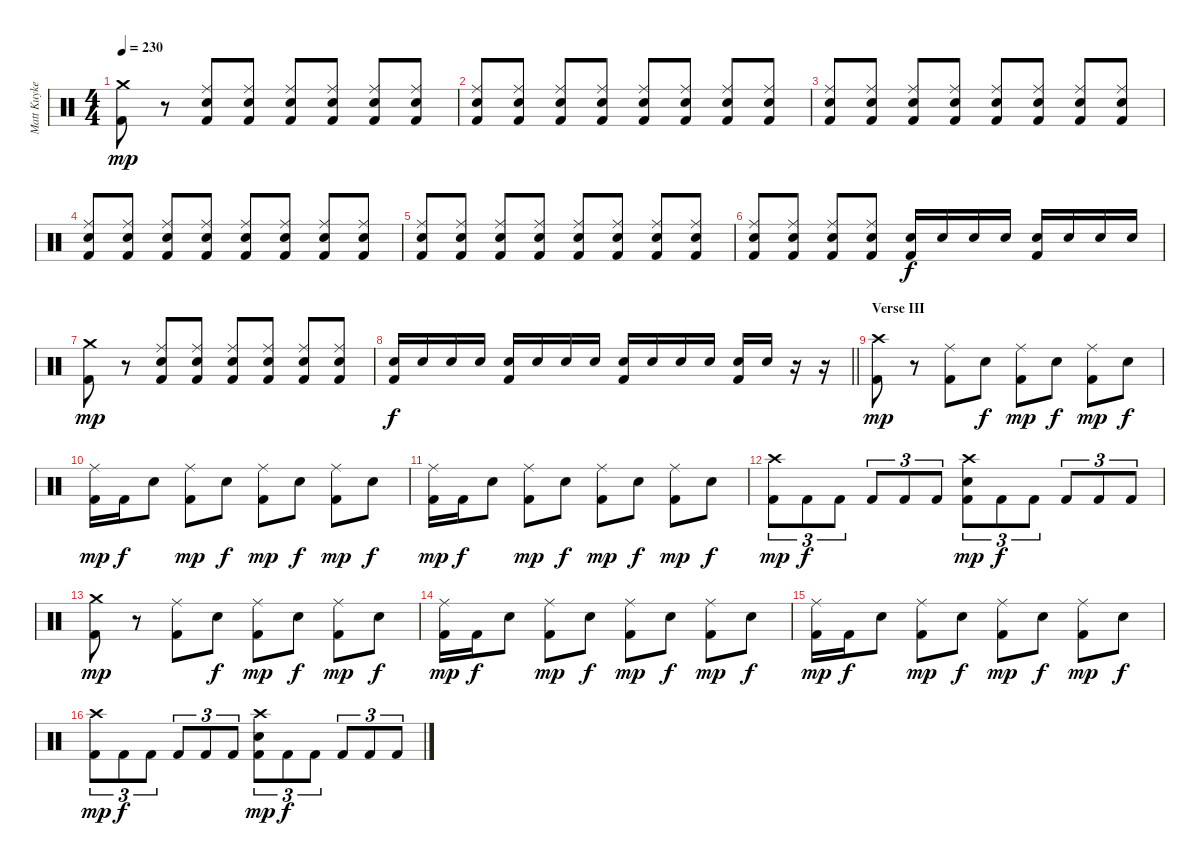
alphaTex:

\track ("Matt Kuykendall" "Matt Kuyke") {instrument percussion}
\staff {score}
\articulation defaults
\ts (4 4)
\tempo 230
\clef neutral
\ks c
("Crash medium (hit)" "Kick (hit) 2").8{dy mp} r.8 ("Ride (middle)" "Electric Snare (hit)" "Kick (hit) 2").8 ("Ride (middle)" "Electric Snare (hit)" "Kick (hit) 2").8 ("Ride (middle)" "Electric Snare (hit)" "Kick (hit) 2").8 ("Ride (middle)" "Electric Snare (hit)" "Kick (hit) 2").8 ("Ride (middle)" "Electric Snare (hit)" "Kick (hit) 2").8 ("Ride (middle)" "Electric Snare (hit)" "Kick (hit) 2").8 |
("Ride (middle)" "Electric Snare (hit)" "Kick (hit) 2").8 ("Ride (middle)" "Electric Snare (hit)" "Kick (hit) 2").8 ("Ride (middle)" "Electric Snare (hit)" "Kick (hit) 2").8 ("Ride (middle)" "Electric Snare (hit)" "Kick (hit) 2").8 ("Ride (middle)" "Electric Snare (hit)" "Kick (hit) 2").8 ("Ride (middle)" "Electric Snare (hit)" "Kick (hit) 2").8 ("Ride (middle)" "Electric Snare (hit)" "Kick (hit) 2").8 ("Ride (middle)" "Electric Snare (hit)" "Kick (hit) 2").8 |
("Ride (middle)" "Electric Snare (hit)" "Kick (hit) 2").8 ("Ride (middle)" "Electric Snare (hit)" "Kick (hit) 2").8 ("Ride (middle)" "Electric Snare (hit)" "Kick (hit) 2").8 ("Ride (middle)" "Electric Snare (hit)" "Kick (hit) 2").8 ("Ride (middle)" "Electric Snare (hit)" "Kick (hit) 2").8 ("Ride (middle)" "Electric Snare (hit)" "Kick (hit) 2").8 ("Ride (middle)" "Electric Snare (hit)" "Kick (hit) 2").8 ("Ride (middle)" "Electric Snare (hit)" "Kick (hit) 2").8 |
("Ride (middle)" "Electric Snare (hit)" "Kick (hit) 2").8 ("Ride (middle)" "Electric Snare (hit)" "Kick (hit) 2").8 ("Ride (middle)" "Electric Snare (hit)" "Kick (hit) 2").8 ("Ride (middle)" "Electric Snare (hit)" "Kick (hit) 2").8 ("Ride (middle)" "Electric Snare (hit)" "Kick (hit) 2").8 ("Ride (middle)" "Electric Snare (hit)" "Kick (hit) 2").8 ("Ride (middle)" "Electric Snare (hit)" "Kick (hit) 2").8 ("Ride (middle)" "Electric Snare (hit)" "Kick (hit) 2").8 |
("Ride (middle)" "Electric Snare (hit)" "Kick (hit) 2").8 ("Ride (middle)" "Electric Snare (hit)" "Kick (hit) 2").8 ("Ride (middle)" "Electric Snare (hit)" "Kick (hit) 2").8 ("Ride (middle)" "Electric Snare (hit)" "Kick (hit) 2").8 ("Ride (middle)" "Electric Snare (hit)" "Kick (hit) 2").8 ("Ride (middle)" "Electric Snare (hit)" "Kick (hit) 2").8 ("Ride (middle)" "Electric Snare (hit)" "Kick (hit) 2").8 ("Ride (middle)" "Electric Snare (hit)" "Kick (hit) 2").8 |
("Ride (middle)" "Electric Snare (hit)" "Kick (hit) 2").8 ("Ride (middle)" "Electric Snare (hit)" "Kick (hit) 2").8 ("Ride (middle)" "Electric Snare (hit)" "Kick (hit) 2").8 ("Ride (middle)" "Electric Snare (hit)" "Kick (hit) 2").8 ("Electric Snare (hit)" "Kick (hit) 2").16{dy f} "Electric Snare (hit)".16 "Electric Snare (hit)".16 "Electric Snare (hit)".16 ("Electric Snare (hit)" "Kick (hit) 2").16 "Electric Snare (hit)".16 "Electric Snare (hit)".16 "Electric Snare (hit)".16 |
("Crash medium (hit)" "Kick (hit) 2").8{dy mp} r.8 ("Ride (middle)" "Electric Snare (hit)" "Kick (hit) 2").8 ("Ride (middle)" "Electric Snare (hit)" "Kick (hit) 2").8 ("Ride (middle)" "Electric Snare (hit)" "Kick (hit) 2").8 ("Ride (middle)" "Electric Snare (hit)" "Kick (hit) 2").8 ("Ride (middle)" "Electric Snare (hit)" "Kick (hit) 2").8 ("Ride (middle)" "Electric Snare (hit)" "Kick (hit) 2").8 |
\barLineRight lightlight
("Electric Snare (hit)" "Kick (hit) 2").16{dy f} "Electric Snare (hit)".16 "Electric Snare (hit)".16 "Electric Snare (hit)".16 ("Electric Snare (hit)" "Kick (hit) 2").16 "Electric Snare (hit)".16 "Electric Snare (hit)".16 "Electric Snare (hit)".16 ("Electric Snare (hit)" "Kick (hit) 2").16 "Electric Snare (hit)".16 "Electric Snare (hit)".16 "Electric Snare (hit)".16 ("Electric Snare (hit)" "Kick (hit) 2").16 "Electric Snare (hit)".16 r.16 r.16 |
\section ("" "Verse III")
("Crash high (hit)" "Kick (hit) 2").8{dy mp} r.8 ("Ride (middle)" "Kick (hit) 2").8 "Electric Snare (hit)".8{dy f} ("Ride (middle)" "Kick (hit) 2").8{dy mp} "Electric Snare (hit)".8{dy f} ("Ride (middle)" "Kick (hit) 2").8{dy mp} "Electric Snare (hit)".8{dy f} |
("Ride (middle)" "Kick (hit) 2").16{dy mp} "Kick (hit) 2".16{dy f} "Electric Snare (hit)".8 ("Ride (middle)" "Kick (hit) 2").8{dy mp} "Electric Snare (hit)".8{dy f} ("Ride (middle)" "Kick (hit) 2").8{dy mp} "Electric Snare (hit)".8{dy f} ("Ride (middle)" "Kick (hit) 2").8{dy mp} "Electric Snare (hit)".8{dy f} |
("Ride (middle)" "Kick (hit) 2").16{dy mp} "Kick (hit) 2".16{dy f} "Electric Snare (hit)".8 ("Ride (middle)" "Kick (hit) 2").8{dy mp} "Electric Snare (hit)".8{dy f} ("Ride (middle)" "Kick (hit) 2").8{dy mp} "Electric Snare (hit)".8{dy f} ("Ride (middle)" "Kick (hit) 2").8{dy mp} "Electric Snare (hit)".8{dy f} |
("Crash high (hit)" "Kick (hit) 2").8{tu (3 2) dy mp} "Kick (hit) 2".8{tu (3 2) dy f} "Kick (hit) 2".8{tu (3 2)} "Kick (hit) 2".8{tu (3 2)} "Kick (hit) 2".8{tu (3 2)} "Kick (hit) 2".8{tu (3 2)} ("Crash high (hit)" "Electric Snare (hit)" "Kick (hit) 2").8{tu (3 2) dy mp} "Kick (hit) 2".8{tu (3 2) dy f} "Kick (hit) 2".8{tu (3 2)} "Kick (hit) 2".8{tu (3 2)} "Kick (hit) 2".8{tu (3 2)} "Kick (hit) 2".8{tu (3 2)} |
("Crash medium (hit)" "Kick (hit) 2").8{dy mp} r.8 ("Ride (middle)" "Kick (hit) 2").8 "Electric Snare (hit)".8{dy f} ("Ride (middle)" "Kick (hit) 2").8{dy mp} "Electric Snare (hit)".8{dy f} ("Ride (middle)" "Kick (hit) 2").8{dy mp} "Electric Snare (hit)".8{dy f} |
("Ride (middle)" "Kick (hit) 2").16{dy mp} "Kick (hit) 2".16{dy f} "Electric Snare (hit)".8 ("Ride (middle)" "Kick (hit) 2").8{dy mp} "Electric Snare (hit)".8{dy f} ("Ride (middle)" "Kick (hit) 2").8{dy mp} "Electric Snare (hit)".8{dy f} ("Ride (middle)" "Kick (hit) 2").8{dy mp} "Electric Snare (hit)".8{dy f} |
("Ride (middle)" "Kick (hit) 2").16{dy mp} "Kick (hit) 2".16{dy f} "Electric Snare (hit)".8 ("Ride (middle)" "Kick (hit) 2").8{dy mp} "Electric Snare (hit)".8{dy f} ("Ride (middle)" "Kick (hit) 2").8{dy mp} "Electric Snare (hit)".8{dy f} ("Ride (middle)" "Kick (hit) 2").8{dy mp} "Electric Snare (hit)".8{dy f} |
("Crash high (hit)" "Kick (hit) 2").8{tu (3 2) dy mp} "Kick (hit) 2".8{tu (3 2) dy f} "Kick (hit) 2".8{tu (3 2)} "Kick (hit) 2".8{tu (3 2)} "Kick (hit) 2".8{tu (3 2)} "Kick (hit) 2".8{tu (3 2)} ("Crash high (hit)" "Electric Snare (hit)" "Kick (hit) 2").8{tu (3 2) dy mp} "Kick (hit) 2".8{tu (3 2) dy f} "Kick (hit) 2".8{tu (3 2)} "Kick (hit) 2".8{tu (3 2)} "Kick (hit) 2".8{tu (3 2)} "Kick (hit) 2".8{tu (3 2)}
